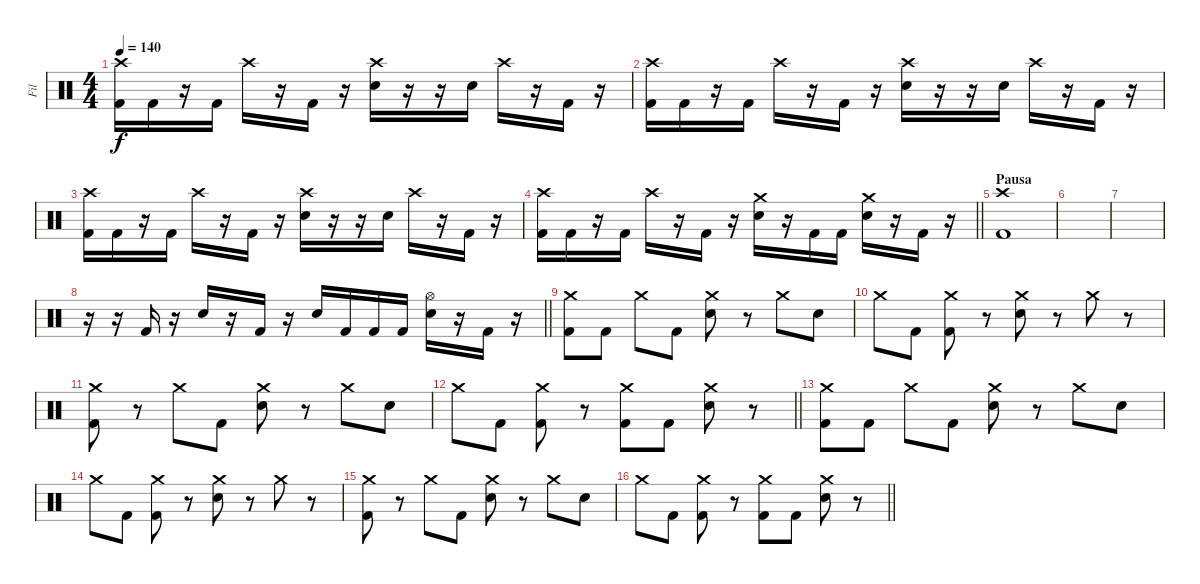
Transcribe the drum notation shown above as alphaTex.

\track ("Fil" "Fil") {instrument percussion}
\staff {score}
\articulation defaults
\ts (4 4)
\tempo 140
\clef neutral
\ks c
("Crash high (hit)" "Kick (hit) 2").16{dy f} "Kick (hit) 2".16 r.16 "Kick (hit) 2".16 "Crash high (hit)".16 r.16 "Kick (hit) 2".16 r.16 ("Crash high (hit)" "Electric Snare (hit)").16 r.16 r.16 "Electric Snare (hit)".16 "Crash high (hit)".16 r.16 "Kick (hit) 2".16 r.16 |
("Crash high (hit)" "Kick (hit) 2").16 "Kick (hit) 2".16 r.16 "Kick (hit) 2".16 "Crash high (hit)".16 r.16 "Kick (hit) 2".16 r.16 ("Crash high (hit)" "Electric Snare (hit)").16 r.16 r.16 "Electric Snare (hit)".16 "Crash high (hit)".16 r.16 "Kick (hit) 2".16 r.16 |
("Crash high (hit)" "Kick (hit) 2").16 "Kick (hit) 2".16 r.16 "Kick (hit) 2".16 "Crash high (hit)".16 r.16 "Kick (hit) 2".16 r.16 ("Crash high (hit)" "Electric Snare (hit)").16 r.16 r.16 "Electric Snare (hit)".16 "Crash high (hit)".16 r.16 "Kick (hit) 2".16 r.16 |
\barLineRight lightlight
("Crash high (hit)" "Kick (hit) 2").16 "Kick (hit) 2".16 r.16 "Kick (hit) 2".16 "Crash high (hit)".16 r.16 "Kick (hit) 2".16 r.16 ("Crash medium (hit)" "Electric Snare (hit)").16 r.16 "Kick (hit) 2".16 "Kick (hit) 2".16 ("Crash medium (hit)" "Electric Snare (hit)").16 r.16 "Kick (hit) 2".16 r.16 |
\section ("" "Pausa")
("Crash high (hit)" "Kick (hit) 2").1 |
|
|
\barLineRight lightlight
r.16 r.16 "Kick (hit) 2".16 r.16 "Electric Snare (hit)".16 r.16 "Kick (hit) 2".16 r.16 "Electric Snare (hit)".16 "Kick (hit) 2".16 "Kick (hit) 2".16 "Kick (hit) 2".16 ("Hi-Hat (open)" "Electric Snare (hit)").16 r.16 "Kick (hit) 2".16 r.16 |
("Crash medium (hit)" "Kick (hit) 2").8 "Kick (hit) 2".8 "Crash medium (hit)".8 "Kick (hit) 2".8 ("Crash medium (hit)" "Electric Snare (hit)").8 r.8 "Crash medium (hit)".8 "Electric Snare (hit)".8 |
"Crash medium (hit)".8 "Kick (hit) 2".8 ("Crash medium (hit)" "Kick (hit) 2").8 r.8 ("Crash medium (hit)" "Electric Snare (hit)").8 r.8 "Crash medium (hit)".8 r.8 |
("Crash medium (hit)" "Kick (hit) 2").8 r.8 "Crash medium (hit)".8 "Kick (hit) 2".8 ("Crash medium (hit)" "Electric Snare (hit)").8 r.8 "Crash medium (hit)".8 "Electric Snare (hit)".8 |
\barLineRight lightlight "Crash medium (hit)".8 "Kick (hit) 2".8
("Crash medium (hit)" "Kick (hit) 2").8 r.8 ("Crash medium (hit)" "Kick (hit) 2").8 "Kick (hit) 2".8 ("Crash medium (hit)" "Electric Snare (hit)").8 r.8 |
("Crash medium (hit)" "Kick (hit) 2").8 "Kick (hit) 2".8 "Crash medium (hit)".8 "Kick (hit) 2".8 ("Crash medium (hit)" "Electric Snare (hit)").8 r.8 "Crash medium (hit)".8 "Electric Snare (hit)".8 |
"Crash medium (hit)".8 "Kick (hit) 2".8 ("Crash medium (hit)" "Kick (hit) 2").8 r.8 ("Crash medium (hit)" "Electric Snare (hit)").8 r.8 "Crash medium (hit)".8 r.8 |
("Crash medium (hit)" "Kick (hit) 2").8 r.8 "Crash medium (hit)".8 "Kick (hit) 2".8 ("Crash medium (hit)" "Electric Snare (hit)").8 r.8 "Crash medium (hit)".8 "Electric Snare (hit)".8 |
\barLineRight lightlight "Crash medium (hit)".8 "Kick (hit) 2".8
("Crash medium (hit)" "Kick (hit) 2").8 r.8 ("Crash medium (hit)" "Kick (hit) 2").8 "Kick (hit) 2".8 ("Crash medium (hit)" "Electric Snare (hit)").8 r.8
